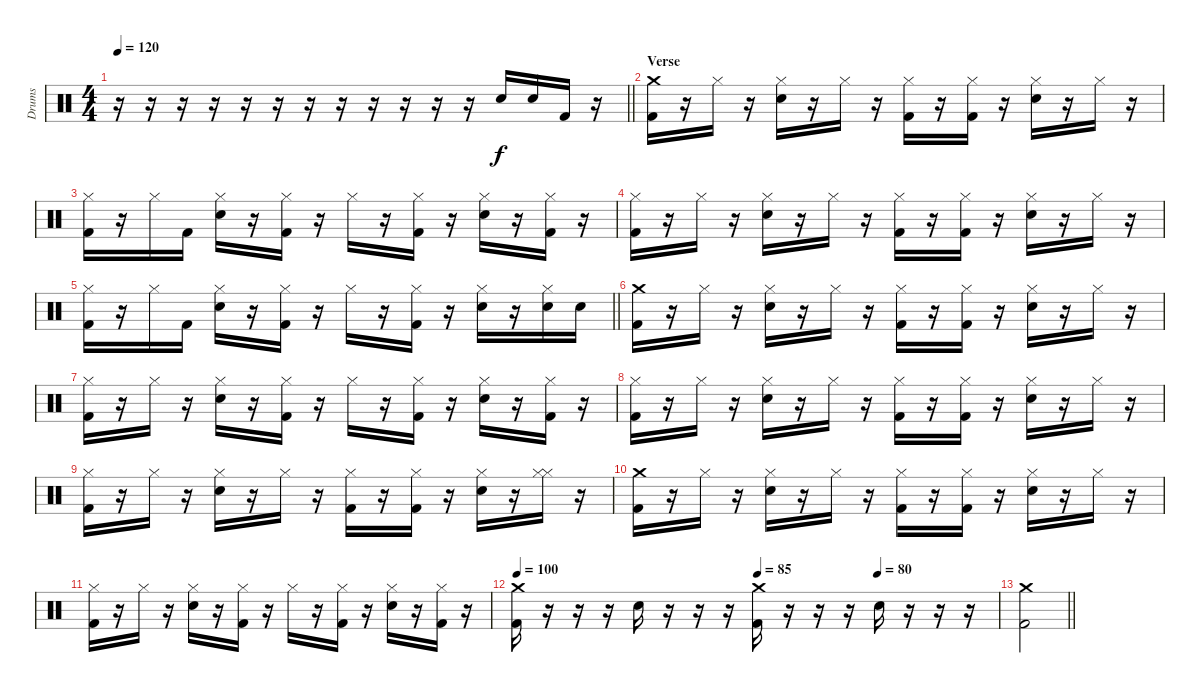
\track ("Drums" "Drums") {instrument percussion}
\staff {score}
\articulation defaults
\ts (4 4)
\tempo 120
\clef neutral
\barLineRight lightlight
\ks c
r.16{dy f} r.16 r.16 r.16 r.16 r.16 r.16 r.16 r.16 r.16 r.16 r.16 "Snare (hit) 2".16 "Snare (hit) 2".16 "Kick (hit) 2".16 r.16 |
\section ("" "Verse")
("Crash medium (hit)" "Kick (hit) 2").16 r.16 "Hi-Hat (closed)".16 r.16 ("Hi-Hat (closed)" "Snare (hit) 2").16 r.16 "Hi-Hat (closed)".16 r.16 ("Hi-Hat (closed)" "Kick (hit) 2").16 r.16 ("Hi-Hat (closed)" "Kick (hit) 2").16 r.16 ("Hi-Hat (closed)" "Snare (hit) 2").16 r.16 "Hi-Hat (closed)".16 r.16 |
("Hi-Hat (closed)" "Kick (hit) 2").16 r.16 "Hi-Hat (closed)".16 "Kick (hit) 2".16 ("Hi-Hat (closed)" "Snare (hit) 2").16 r.16 ("Hi-Hat (closed)" "Kick (hit) 2").16 r.16 "Hi-Hat (closed)".16 r.16 ("Hi-Hat (closed)" "Kick (hit) 2").16 r.16 ("Hi-Hat (closed)" "Snare (hit) 2").16 r.16 ("Hi-Hat (closed)" "Kick (hit) 2").16 r.16 |
("Hi-Hat (closed)" "Kick (hit) 2").16 r.16 "Hi-Hat (closed)".16 r.16 ("Hi-Hat (closed)" "Snare (hit) 2").16 r.16 "Hi-Hat (closed)".16 r.16 ("Hi-Hat (closed)" "Kick (hit) 2").16 r.16 ("Hi-Hat (closed)" "Kick (hit) 2").16 r.16 ("Hi-Hat (closed)" "Snare (hit) 2").16 r.16 "Hi-Hat (closed)".16 r.16 |
\barLineRight lightlight
("Hi-Hat (closed)" "Kick (hit) 2").16 r.16 "Hi-Hat (closed)".16 "Kick (hit) 2".16 ("Hi-Hat (closed)" "Snare (hit) 2").16 r.16 ("Hi-Hat (closed)" "Kick (hit) 2").16 r.16 "Hi-Hat (closed)".16 r.16 ("Hi-Hat (closed)" "Kick (hit) 2").16 r.16 ("Hi-Hat (closed)" "Snare (hit) 2").16 r.16 ("Hi-Hat (closed)" "Snare (hit) 2").16 "Snare (hit) 2".16 |
("Crash medium (hit)" "Kick (hit) 2").16 r.16 "Hi-Hat (closed)".16 r.16 ("Hi-Hat (closed)" "Snare (hit) 2").16 r.16 "Hi-Hat (closed)".16 r.16 ("Hi-Hat (closed)" "Kick (hit) 2").16 r.16 ("Hi-Hat (closed)" "Kick (hit) 2").16 r.16 ("Hi-Hat (closed)" "Snare (hit) 2").16 r.16 "Hi-Hat (closed)".16 r.16 |
("Hi-Hat (closed)" "Kick (hit) 2").16 r.16 "Hi-Hat (closed)".16 r.16 ("Hi-Hat (closed)" "Snare (hit) 2").16 r.16 ("Hi-Hat (closed)" "Kick (hit) 2").16 r.16 "Hi-Hat (closed)".16 r.16 ("Hi-Hat (closed)" "Kick (hit) 2").16 r.16 ("Hi-Hat (closed)" "Snare (hit) 2").16 r.16 ("Hi-Hat (closed)" "Kick (hit) 2").16 r.16 |
("Hi-Hat (closed)" "Kick (hit) 2").16 r.16 "Hi-Hat (closed)".16 r.16 ("Hi-Hat (closed)" "Snare (hit) 2").16 r.16 "Hi-Hat (closed)".16 r.16 ("Hi-Hat (closed)" "Kick (hit) 2").16 r.16 ("Hi-Hat (closed)" "Kick (hit) 2").16 r.16 ("Hi-Hat (closed)" "Snare (hit) 2").16 r.16 "Hi-Hat (closed)".16 r.16 |
("Hi-Hat (closed)" "Kick (hit) 2").16 r.16 "Hi-Hat (closed)".16 r.16 ("Hi-Hat (closed)" "Snare (hit) 2").16 r.16 "Hi-Hat (closed)".16 r.16 ("Hi-Hat (closed)" "Kick (hit) 2").16 r.16 ("Hi-Hat (closed)" "Kick (hit) 2").16 r.16 ("Hi-Hat (closed)" "Snare (hit) 2").16 r.16 ("Hi-Hat (closed)" "Hi-Hat (closed)").16 r.16 |
("Crash medium (hit)" "Kick (hit) 2").16 r.16 "Hi-Hat (closed)".16 r.16 ("Hi-Hat (closed)" "Snare (hit) 2").16 r.16 "Hi-Hat (closed)".16 r.16 ("Hi-Hat (closed)" "Kick (hit) 2").16 r.16 ("Hi-Hat (closed)" "Kick (hit) 2").16 r.16 ("Hi-Hat (closed)" "Snare (hit) 2").16 r.16 "Hi-Hat (closed)".16 r.16 |
("Hi-Hat (closed)" "Kick (hit) 2").16 r.16 "Hi-Hat (closed)".16 r.16 ("Hi-Hat (closed)" "Snare (hit) 2").16 r.16 ("Hi-Hat (closed)" "Kick (hit) 2").16 r.16 "Hi-Hat (closed)".16 r.16 ("Hi-Hat (closed)" "Kick (hit) 2").16 r.16 ("Hi-Hat (closed)" "Snare (hit) 2").16 r.16 ("Hi-Hat (closed)" "Kick (hit) 2").16 r.16 |
\tempo 100
\tempo (85 0.5)
\tempo (80 0.75)
("Crash medium (hit)" "Kick (hit) 2").16 r.16 r.16 r.16 "Snare (hit) 2".16 r.16 r.16 r.16 ("Crash medium (hit)" "Kick (hit) 2").16 r.16 r.16 r.16 "Snare (hit) 2".16 r.16 r.16 r.16 |
\barLineRight lightlight
("Crash medium (hit)" "Kick (hit) 2").2
